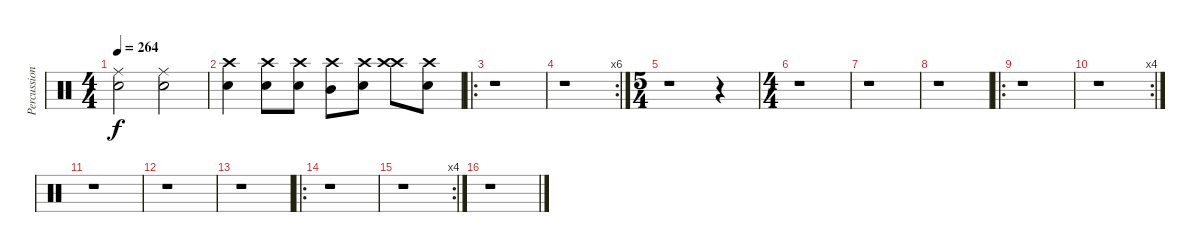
\track ("Percussion" "Percussion") {instrument percussion}
\staff {score}
\articulation defaults
\ts (4 4)
\tempo 264
\clef neutral
\ks c
("Ride (middle)" "Snare (hit) 2").2{dy f} ("Ride (middle)" "Snare (hit) 2").2 |
("Crash high (hit)" "Snare (hit) 2").4 ("Crash high (hit)" "Snare (hit) 2").8 ("Crash high (hit)" "Snare (hit) 2").8 ("Crash high (hit)" "Mid Tom (hit)").8 ("Crash high (hit)" "Snare (hit) 2").8 ("Crash high (hit)" "Crash high (hit)").8 ("Crash high (hit)" "Snare (hit) 2").8 |
\ro
r.1 |
\rc 6
r.1 |
\ts (5 4)
r.1 r.4 |
\ts (4 4)
r.1 |
r.1 |
r.1 |
\ro
r.1 |
\rc 4
r.1 |
r.1 |
r.1 |
r.1 |
\ro
r.1 |
\rc 4
r.1 |
r.1
